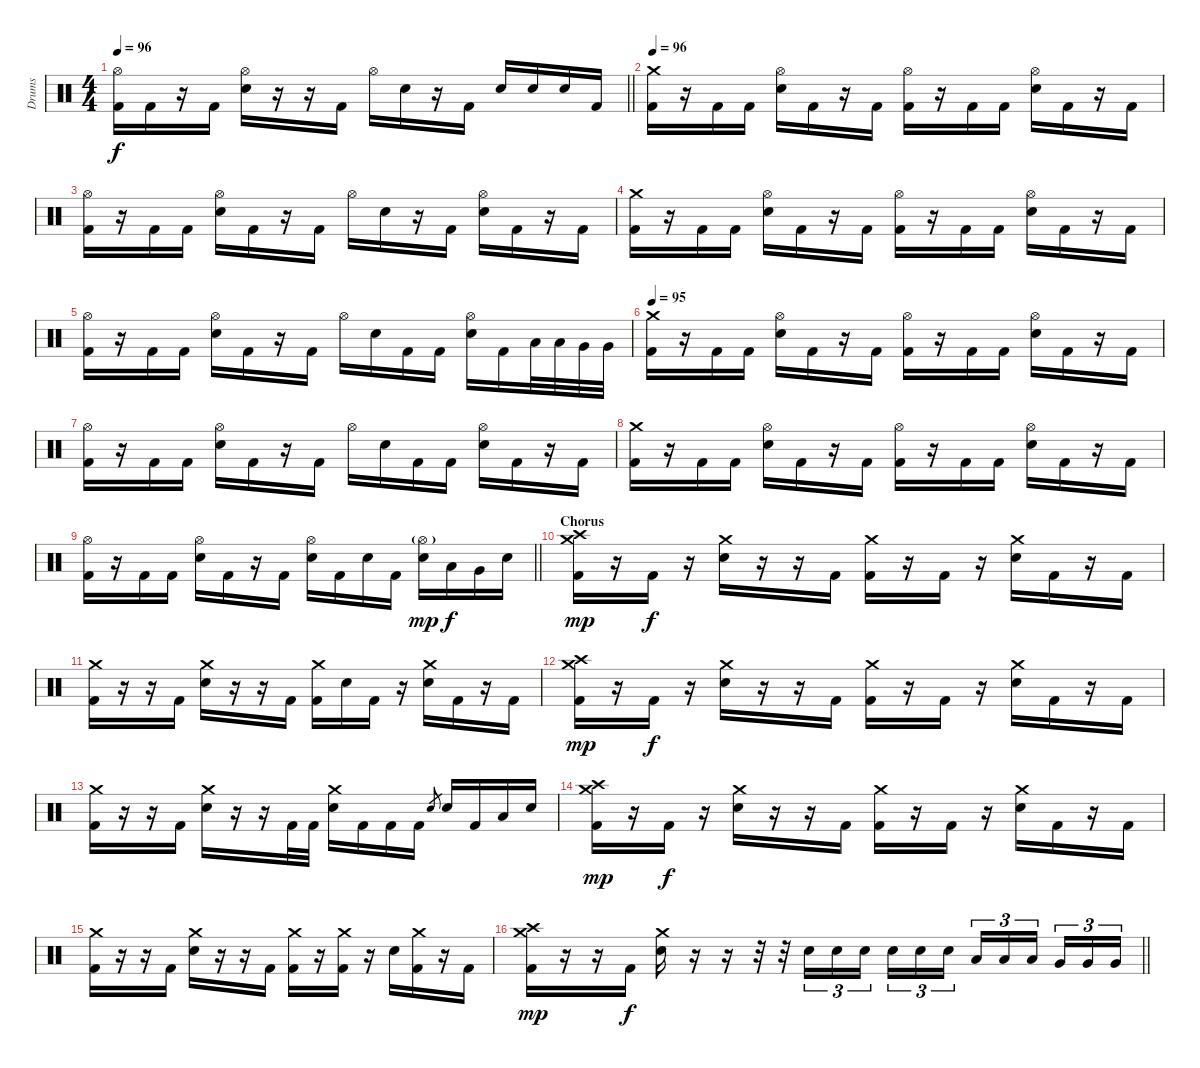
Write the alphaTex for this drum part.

\track ("Drums" "Drums") {instrument percussion}
\staff {score}
\articulation defaults
\ts (4 4)
\tempo 96
\clef neutral
\barLineRight lightlight
\ks c
("Hi-Hat (open)" "Kick (hit) 2").16{dy f} "Kick (hit) 2".16 r.16 "Kick (hit) 2".16 ("Hi-Hat (open)" "Electric Snare (hit)").16 r.16 r.16 "Kick (hit) 2".16 "Hi-Hat (open)".16 "Electric Snare (hit)".16 r.16 "Kick (hit) 2".16 "Electric Snare (hit)".16 "Electric Snare (hit)".16 "Electric Snare (hit)".16 "Kick (hit) 2".16 |
\section ("" "")
\tempo 96
("Crash medium (hit)" "Kick (hit) 2").16 r.16 "Kick (hit) 2".16 "Kick (hit) 2".16 ("Hi-Hat (open)" "Electric Snare (hit)").16 "Kick (hit) 2".16 r.16 "Kick (hit) 2".16 ("Hi-Hat (open)" "Kick (hit) 2").16 r.16 "Kick (hit) 2".16 "Kick (hit) 2".16 ("Hi-Hat (open)" "Electric Snare (hit)").16 "Kick (hit) 2".16 r.16 "Kick (hit) 2".16 |
("Hi-Hat (open)" "Kick (hit) 2").16 r.16 "Kick (hit) 2".16 "Kick (hit) 2".16 ("Hi-Hat (open)" "Electric Snare (hit)").16 "Kick (hit) 2".16 r.16 "Kick (hit) 2".16 "Hi-Hat (open)".16 "Electric Snare (hit)".16 r.16 "Kick (hit) 2".16 ("Hi-Hat (open)" "Electric Snare (hit)").16 "Kick (hit) 2".16 r.16 "Kick (hit) 2".16 |
("Crash medium (hit)" "Kick (hit) 2").16 r.16 "Kick (hit) 2".16 "Kick (hit) 2".16 ("Hi-Hat (open)" "Electric Snare (hit)").16 "Kick (hit) 2".16 r.16 "Kick (hit) 2".16 ("Hi-Hat (open)" "Kick (hit) 2").16 r.16 "Kick (hit) 2".16 "Kick (hit) 2".16 ("Hi-Hat (open)" "Electric Snare (hit)").16 "Kick (hit) 2".16 r.16 "Kick (hit) 2".16 |
("Hi-Hat (open)" "Kick (hit) 2").16 r.16 "Kick (hit) 2".16 "Kick (hit) 2".16 ("Hi-Hat (open)" "Electric Snare (hit)").16 "Kick (hit) 2".16 r.16 "Kick (hit) 2".16 "Hi-Hat (open)".16 "Electric Snare (hit)".16 "Kick (hit) 2".16 "Kick (hit) 2".16 ("Hi-Hat (open)" "Electric Snare (hit)").16 "Kick (hit) 2".16 "Low Tom (hit)".32 "Low Tom (hit)".32 "Very Low Tom (hit)".32 "Very Low Tom (hit)".32 |
\tempo 95
("Crash medium (hit)" "Kick (hit) 2").16 r.16 "Kick (hit) 2".16 "Kick (hit) 2".16 ("Hi-Hat (open)" "Electric Snare (hit)").16 "Kick (hit) 2".16 r.16 "Kick (hit) 2".16 ("Hi-Hat (open)" "Kick (hit) 2").16 r.16 "Kick (hit) 2".16 "Kick (hit) 2".16 ("Hi-Hat (open)" "Electric Snare (hit)").16 "Kick (hit) 2".16 r.16 "Kick (hit) 2".16 |
("Hi-Hat (open)" "Kick (hit) 2").16 r.16 "Kick (hit) 2".16 "Kick (hit) 2".16 ("Hi-Hat (open)" "Electric Snare (hit)").16 "Kick (hit) 2".16 r.16 "Kick (hit) 2".16 "Hi-Hat (open)".16 "Electric Snare (hit)".16 "Kick (hit) 2".16 "Kick (hit) 2".16 ("Hi-Hat (open)" "Electric Snare (hit)").16 "Kick (hit) 2".16 r.16 "Kick (hit) 2".16 |
("Crash medium (hit)" "Kick (hit) 2").16 r.16 "Kick (hit) 2".16 "Kick (hit) 2".16 ("Hi-Hat (open)" "Electric Snare (hit)").16 "Kick (hit) 2".16 r.16 "Kick (hit) 2".16 ("Hi-Hat (open)" "Kick (hit) 2").16 r.16 "Kick (hit) 2".16 "Kick (hit) 2".16 ("Hi-Hat (open)" "Electric Snare (hit)").16 "Kick (hit) 2".16 r.16 "Kick (hit) 2".16 |
\barLineRight lightlight
("Hi-Hat (open)" "Kick (hit) 2").16 r.16 "Kick (hit) 2".16 "Kick (hit) 2".16 ("Hi-Hat (open)" "Electric Snare (hit)").16 "Kick (hit) 2".16 r.16 "Kick (hit) 2".16 ("Hi-Hat (open)" "Electric Snare (hit)").16 "Kick (hit) 2".16 "Electric Snare (hit)".16 "Kick (hit) 2".16 ("Hi-Hat (open)"{g} "Electric Snare (hit)").16{dy mp} "Low Tom (hit)".16{dy f} "Very Low Tom (hit)".16 "Electric Snare (hit)".16 |
\section ("" "Chorus")
("Crash high (hit)" "Crash medium (hit)" "Kick (hit) 2").16{dy mp} r.16 "Kick (hit) 2".16{dy f} r.16 ("Crash medium (hit)" "Electric Snare (hit)").16 r.16 r.16 "Kick (hit) 2".16 ("Crash medium (hit)" "Kick (hit) 2").16 r.16 "Kick (hit) 2".16 r.16 ("Crash medium (hit)" "Electric Snare (hit)").16 "Kick (hit) 2".16 r.16 "Kick (hit) 2".16 |
("Crash medium (hit)" "Kick (hit) 2").16 r.16 r.16 "Kick (hit) 2".16 ("Crash medium (hit)" "Electric Snare (hit)").16 r.16 r.16 "Kick (hit) 2".16 ("Crash medium (hit)" "Kick (hit) 2").16 "Electric Snare (hit)".16 "Kick (hit) 2".16 r.16 ("Crash medium (hit)" "Electric Snare (hit)").16 "Kick (hit) 2".16 r.16 "Kick (hit) 2".16 |
("Crash high (hit)" "Crash medium (hit)" "Kick (hit) 2").16{dy mp} r.16 "Kick (hit) 2".16{dy f} r.16 ("Crash medium (hit)" "Electric Snare (hit)").16 r.16 r.16 "Kick (hit) 2".16 ("Crash medium (hit)" "Kick (hit) 2").16 r.16 "Kick (hit) 2".16 r.16 ("Crash medium (hit)" "Electric Snare (hit)").16 "Kick (hit) 2".16 r.16 "Kick (hit) 2".16 |
("Crash medium (hit)" "Kick (hit) 2").16 r.16 r.16 "Kick (hit) 2".16 ("Crash medium (hit)" "Electric Snare (hit)").16 r.16 r.16 "Kick (hit) 2".32 "Kick (hit) 2".32 ("Crash medium (hit)" "Electric Snare (hit)").16 "Kick (hit) 2".16 "Kick (hit) 2".16 "Kick (hit) 2".16 "Electric Snare (hit)".8{gr} "Electric Snare (hit)".16 "Kick (hit) 2".16 "Low Tom (hit)".16 "Electric Snare (hit)".16 |
("Crash high (hit)" "Crash medium (hit)" "Kick (hit) 2").16{dy mp} r.16 "Kick (hit) 2".16{dy f} r.16 ("Crash medium (hit)" "Electric Snare (hit)").16 r.16 r.16 "Kick (hit) 2".16 ("Crash medium (hit)" "Kick (hit) 2").16 r.16 "Kick (hit) 2".16 r.16 ("Crash medium (hit)" "Electric Snare (hit)").16 "Kick (hit) 2".16 r.16 "Kick (hit) 2".16 |
("Crash medium (hit)" "Kick (hit) 2").16 r.16 r.16 "Kick (hit) 2".16 ("Crash medium (hit)" "Electric Snare (hit)").16 r.16 r.16 "Kick (hit) 2".16 ("Crash medium (hit)" "Kick (hit) 2").16 r.16 ("Crash medium (hit)" "Kick (hit) 2").16 r.16 "Electric Snare (hit)".16 ("Crash medium (hit)" "Kick (hit) 2").16 r.16 "Kick (hit) 2".16 |
\barLineRight lightlight
("Crash medium (hit)" "Crash high (hit)" "Kick (hit) 2").16{dy mp} r.16 r.16 "Kick (hit) 2".16{dy f} ("Crash medium (hit)" "Electric Snare (hit)").16 r.16 r.16 r.32 r.32 "Electric Snare (hit)".16{tu (3 2)} "Electric Snare (hit)".16{tu (3 2)} "Electric Snare (hit)".16{tu (3 2) beam splitsecondary} "Electric Snare (hit)".16{tu (3 2)} "Electric Snare (hit)".16{tu (3 2)} "Electric Snare (hit)".16{tu (3 2)} "Low Tom (hit)".16{tu (3 2)} "Low Tom (hit)".16{tu (3 2)} "Low Tom (hit)".16{tu (3 2) beam splitsecondary} "Very Low Tom (hit)".16{tu (3 2)} "Very Low Tom (hit)".16{tu (3 2)} "Very Low Tom (hit)".16{tu (3 2)}
